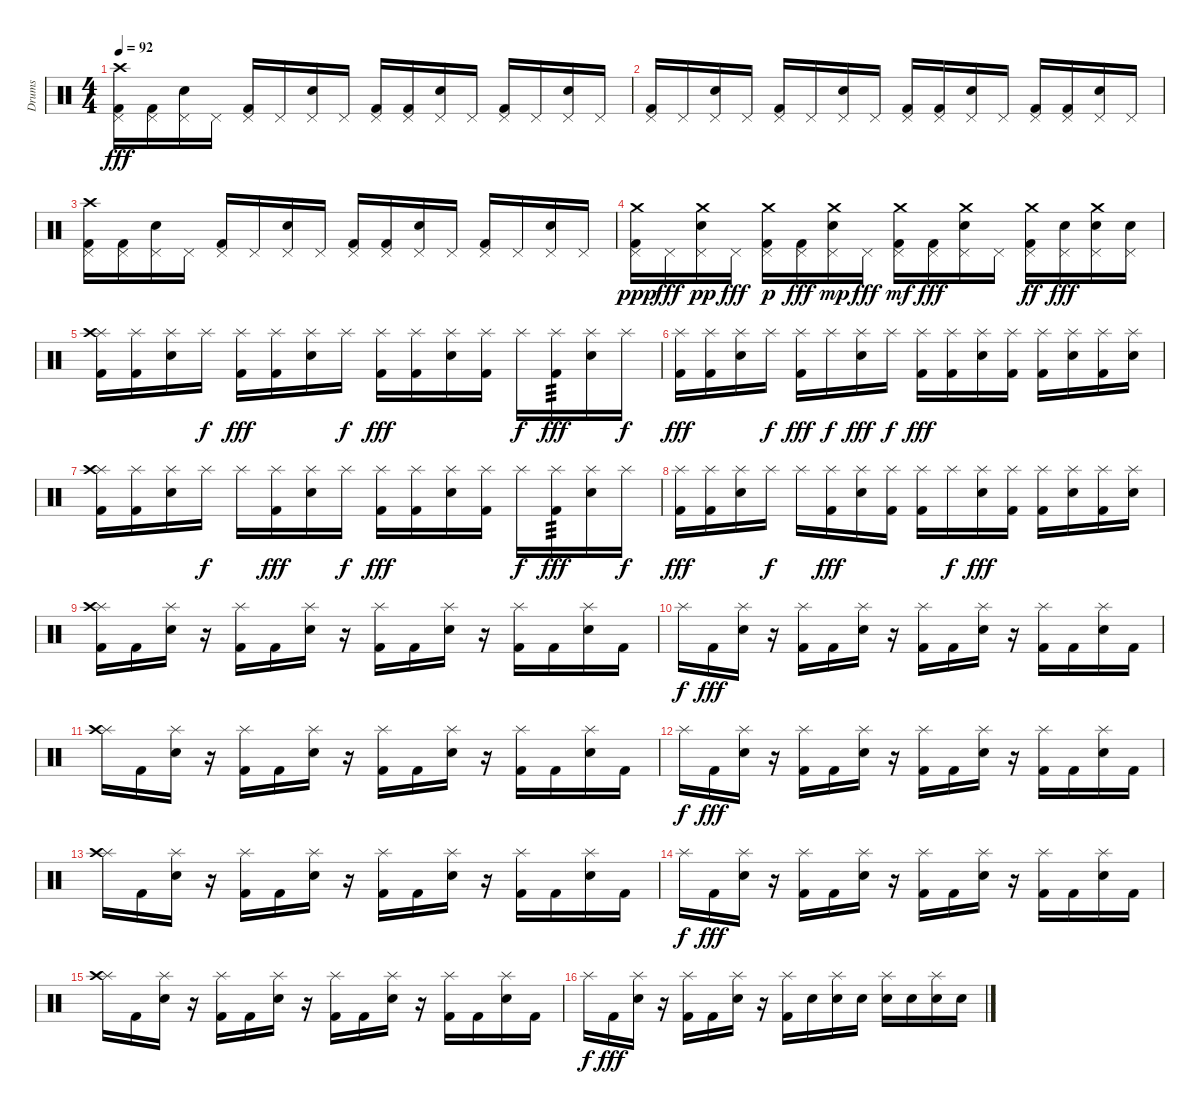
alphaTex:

\track ("Drums" "Drums") {instrument percussion}
\staff {score}
\articulation defaults
\ts (4 4)
\tempo 92
\clef neutral
\ks c
("Kick (hit) 2" "Pedal Hi-Hat (hit)" "Crash high (hit)").16{dy fff} ("Kick (hit) 2" "Pedal Hi-Hat (hit)").16 ("Electric Snare (hit)" "Pedal Hi-Hat (hit)").16 "Pedal Hi-Hat (hit)".16 ("Kick (hit) 2" "Pedal Hi-Hat (hit)").16 "Pedal Hi-Hat (hit)".16 ("Electric Snare (hit)" "Pedal Hi-Hat (hit)").16 "Pedal Hi-Hat (hit)".16 ("Kick (hit) 2" "Pedal Hi-Hat (hit)").16 ("Kick (hit) 2" "Pedal Hi-Hat (hit)").16 ("Electric Snare (hit)" "Pedal Hi-Hat (hit)").16 "Pedal Hi-Hat (hit)".16 ("Kick (hit) 2" "Pedal Hi-Hat (hit)").16 "Pedal Hi-Hat (hit)".16 ("Electric Snare (hit)" "Pedal Hi-Hat (hit)").16 "Pedal Hi-Hat (hit)".16 |
("Kick (hit) 2" "Pedal Hi-Hat (hit)").16 "Pedal Hi-Hat (hit)".16 ("Electric Snare (hit)" "Pedal Hi-Hat (hit)").16 "Pedal Hi-Hat (hit)".16 ("Kick (hit) 2" "Pedal Hi-Hat (hit)").16 "Pedal Hi-Hat (hit)".16 ("Electric Snare (hit)" "Pedal Hi-Hat (hit)").16 "Pedal Hi-Hat (hit)".16 ("Kick (hit) 2" "Pedal Hi-Hat (hit)").16 ("Kick (hit) 2" "Pedal Hi-Hat (hit)").16 ("Electric Snare (hit)" "Pedal Hi-Hat (hit)").16 "Pedal Hi-Hat (hit)".16 ("Kick (hit) 2" "Pedal Hi-Hat (hit)").16 ("Kick (hit) 2" "Pedal Hi-Hat (hit)").16 ("Electric Snare (hit)" "Pedal Hi-Hat (hit)").16 "Pedal Hi-Hat (hit)".16 |
("Kick (hit) 2" "Pedal Hi-Hat (hit)" "Crash high (hit)").16 ("Kick (hit) 2" "Pedal Hi-Hat (hit)").16 ("Electric Snare (hit)" "Pedal Hi-Hat (hit)").16 "Pedal Hi-Hat (hit)".16 ("Kick (hit) 2" "Pedal Hi-Hat (hit)").16 "Pedal Hi-Hat (hit)".16 ("Electric Snare (hit)" "Pedal Hi-Hat (hit)").16 "Pedal Hi-Hat (hit)".16 ("Kick (hit) 2" "Pedal Hi-Hat (hit)").16 ("Kick (hit) 2" "Pedal Hi-Hat (hit)").16 ("Electric Snare (hit)" "Pedal Hi-Hat (hit)").16 "Pedal Hi-Hat (hit)".16 ("Kick (hit) 2" "Pedal Hi-Hat (hit)").16 "Pedal Hi-Hat (hit)".16 ("Electric Snare (hit)" "Pedal Hi-Hat (hit)").16 "Pedal Hi-Hat (hit)".16 |
("Kick (hit) 2" "Pedal Hi-Hat (hit)" "Crash medium (hit)").16{dy ppp} "Pedal Hi-Hat (hit)".16{dy fff} ("Electric Snare (hit)" "Pedal Hi-Hat (hit)" "Crash medium (hit)").16{dy pp} "Pedal Hi-Hat (hit)".16{dy fff} ("Kick (hit) 2" "Pedal Hi-Hat (hit)" "Crash medium (hit)").16{dy p} ("Kick (hit) 2" "Pedal Hi-Hat (hit)").16{dy fff} ("Electric Snare (hit)" "Pedal Hi-Hat (hit)" "Crash medium (hit)").16{dy mp} "Pedal Hi-Hat (hit)".16{dy fff} ("Kick (hit) 2" "Pedal Hi-Hat (hit)" "Crash medium (hit)").16{dy mf} ("Kick (hit) 2" "Pedal Hi-Hat (hit)").16{dy fff} ("Electric Snare (hit)" "Pedal Hi-Hat (hit)" "Crash medium (hit)").16 "Pedal Hi-Hat (hit)".16 ("Kick (hit) 2" "Pedal Hi-Hat (hit)" "Crash medium (hit)").16{dy ff} ("Electric Snare (hit)" "Pedal Hi-Hat (hit)").16{dy fff} ("Electric Snare (hit)" "Pedal Hi-Hat (hit)" "Crash medium (hit)").16 ("Electric Snare (hit)" "Pedal Hi-Hat (hit)").16 |
("Kick (hit) 2" "Splash (hit)" "Crash high (hit)").16 ("Kick (hit) 2" "Splash (hit)").16 ("Electric Snare (hit)" "Splash (hit)").16 "Splash (hit)".16{dy f} ("Kick (hit) 2" "Splash (hit)").16{dy fff} ("Kick (hit) 2" "Splash (hit)").16 ("Electric Snare (hit)" "Splash (hit)").16 "Splash (hit)".16{dy f} ("Kick (hit) 2" "Splash (hit)").16{dy fff} ("Kick (hit) 2" "Splash (hit)").16 ("Electric Snare (hit)" "Splash (hit)").16 ("Kick (hit) 2" "Splash (hit)").16 "Splash (hit)".16{dy f} ("Kick (hit) 2" "Splash (hit)").16{tp 3 dy fff} ("Electric Snare (hit)" "Splash (hit)").16 "Splash (hit)".16{dy f} |
("Kick (hit) 2" "Splash (hit)").16{dy fff} ("Kick (hit) 2" "Splash (hit)").16 ("Electric Snare (hit)" "Splash (hit)").16 "Splash (hit)".16{dy f} ("Kick (hit) 2" "Splash (hit)").16{dy fff} "Splash (hit)".16{dy f} ("Electric Snare (hit)" "Splash (hit)").16{dy fff} "Splash (hit)".16{dy f} ("Kick (hit) 2" "Splash (hit)").16{dy fff} ("Kick (hit) 2" "Splash (hit)").16 ("Electric Snare (hit)" "Splash (hit)").16 ("Kick (hit) 2" "Splash (hit)").16 ("Kick (hit) 2" "Splash (hit)").16 ("Electric Snare (hit)" "Splash (hit)").16 ("Kick (hit) 2" "Splash (hit)").16 ("Electric Snare (hit)" "Splash (hit)").16 |
("Kick (hit) 2" "Splash (hit)" "Crash high (hit)").16 ("Kick (hit) 2" "Splash (hit)").16 ("Electric Snare (hit)" "Splash (hit)").16 "Splash (hit)".16{dy f} "Splash (hit)".16 ("Kick (hit) 2" "Splash (hit)").16{dy fff} ("Electric Snare (hit)" "Splash (hit)").16 "Splash (hit)".16{dy f} ("Kick (hit) 2" "Splash (hit)").16{dy fff} ("Kick (hit) 2" "Splash (hit)").16 ("Electric Snare (hit)" "Splash (hit)").16 ("Kick (hit) 2" "Splash (hit)").16 "Splash (hit)".16{dy f} ("Kick (hit) 2" "Splash (hit)").16{tp 3 dy fff} ("Electric Snare (hit)" "Splash (hit)").16 "Splash (hit)".16{dy f} |
("Kick (hit) 2" "Splash (hit)").16{dy fff} ("Kick (hit) 2" "Splash (hit)").16 ("Electric Snare (hit)" "Splash (hit)").16 "Splash (hit)".16{dy f} "Splash (hit)".16 ("Kick (hit) 2" "Splash (hit)").16{dy fff} ("Electric Snare (hit)" "Splash (hit)").16 ("Kick (hit) 2" "Splash (hit)").16 ("Kick (hit) 2" "Splash (hit)").16 "Splash (hit)".16{dy f} ("Electric Snare (hit)" "Splash (hit)").16{dy fff} ("Kick (hit) 2" "Splash (hit)").16 ("Kick (hit) 2" "Splash (hit)").16 ("Electric Snare (hit)" "Splash (hit)").16 ("Kick (hit) 2" "Splash (hit)").16 ("Electric Snare (hit)" "Splash (hit)").16 |
("Kick (hit) 2" "Splash (hit)" "Crash high (hit)").16 "Kick (hit) 2".16 ("Electric Snare (hit)" "Splash (hit)").16 r.16 ("Kick (hit) 2" "Splash (hit)").16 "Kick (hit) 2".16 ("Electric Snare (hit)" "Splash (hit)").16 r.16 ("Kick (hit) 2" "Splash (hit)").16 "Kick (hit) 2".16 ("Electric Snare (hit)" "Splash (hit)").16 r.16 ("Kick (hit) 2" "Splash (hit)").16 "Kick (hit) 2".16 ("Electric Snare (hit)" "Splash (hit)").16 "Kick (hit) 2".16 |
"Splash (hit)".16{dy f} "Kick (hit) 2".16{dy fff} ("Electric Snare (hit)" "Splash (hit)").16 r.16 ("Kick (hit) 2" "Splash (hit)").16 "Kick (hit) 2".16 ("Electric Snare (hit)" "Splash (hit)").16 r.16 ("Kick (hit) 2" "Splash (hit)").16 "Kick (hit) 2".16 ("Electric Snare (hit)" "Splash (hit)").16 r.16 ("Kick (hit) 2" "Splash (hit)").16 "Kick (hit) 2".16 ("Electric Snare (hit)" "Splash (hit)").16 "Kick (hit) 2".16 |
("Splash (hit)" "Crash high (hit)").16 "Kick (hit) 2".16 ("Electric Snare (hit)" "Splash (hit)").16 r.16 ("Kick (hit) 2" "Splash (hit)").16 "Kick (hit) 2".16 ("Electric Snare (hit)" "Splash (hit)").16 r.16 ("Kick (hit) 2" "Splash (hit)").16 "Kick (hit) 2".16 ("Electric Snare (hit)" "Splash (hit)").16 r.16 ("Kick (hit) 2" "Splash (hit)").16 "Kick (hit) 2".16 ("Electric Snare (hit)" "Splash (hit)").16 "Kick (hit) 2".16 |
"Splash (hit)".16{dy f} "Kick (hit) 2".16{dy fff} ("Electric Snare (hit)" "Splash (hit)").16 r.16 ("Kick (hit) 2" "Splash (hit)").16 "Kick (hit) 2".16 ("Electric Snare (hit)" "Splash (hit)").16 r.16 ("Kick (hit) 2" "Splash (hit)").16 "Kick (hit) 2".16 ("Electric Snare (hit)" "Splash (hit)").16 r.16 ("Kick (hit) 2" "Splash (hit)").16 "Kick (hit) 2".16 ("Electric Snare (hit)" "Splash (hit)").16 "Kick (hit) 2".16 |
("Splash (hit)" "Crash high (hit)").16 "Kick (hit) 2".16 ("Electric Snare (hit)" "Splash (hit)").16 r.16 ("Kick (hit) 2" "Splash (hit)").16 "Kick (hit) 2".16 ("Electric Snare (hit)" "Splash (hit)").16 r.16 ("Kick (hit) 2" "Splash (hit)").16 "Kick (hit) 2".16 ("Electric Snare (hit)" "Splash (hit)").16 r.16 ("Kick (hit) 2" "Splash (hit)").16 "Kick (hit) 2".16 ("Electric Snare (hit)" "Splash (hit)").16 "Kick (hit) 2".16 |
"Splash (hit)".16{dy f} "Kick (hit) 2".16{dy fff} ("Electric Snare (hit)" "Splash (hit)").16 r.16 ("Kick (hit) 2" "Splash (hit)").16 "Kick (hit) 2".16 ("Electric Snare (hit)" "Splash (hit)").16 r.16 ("Kick (hit) 2" "Splash (hit)").16 "Kick (hit) 2".16 ("Electric Snare (hit)" "Splash (hit)").16 r.16 ("Kick (hit) 2" "Splash (hit)").16 "Kick (hit) 2".16 ("Electric Snare (hit)" "Splash (hit)").16 "Kick (hit) 2".16 |
("Splash (hit)" "Crash high (hit)").16 "Kick (hit) 2".16 ("Electric Snare (hit)" "Splash (hit)").16 r.16 ("Kick (hit) 2" "Splash (hit)").16 "Kick (hit) 2".16 ("Electric Snare (hit)" "Splash (hit)").16 r.16 ("Kick (hit) 2" "Splash (hit)").16 "Kick (hit) 2".16 ("Electric Snare (hit)" "Splash (hit)").16 r.16 ("Kick (hit) 2" "Splash (hit)").16 "Kick (hit) 2".16 ("Electric Snare (hit)" "Splash (hit)").16 "Kick (hit) 2".16 |
"Splash (hit)".16{dy f} "Kick (hit) 2".16{dy fff} ("Electric Snare (hit)" "Splash (hit)").16 r.16 ("Kick (hit) 2" "Splash (hit)").16 "Kick (hit) 2".16 ("Electric Snare (hit)" "Splash (hit)").16 r.16 ("Kick (hit) 2" "Splash (hit)").16 "Electric Snare (hit)".16 ("Electric Snare (hit)" "Splash (hit)").16 "Electric Snare (hit)".16 ("Electric Snare (hit)" "Splash (hit)").16 "Electric Snare (hit)".16 ("Electric Snare (hit)" "Splash (hit)").16 "Electric Snare (hit)".16
